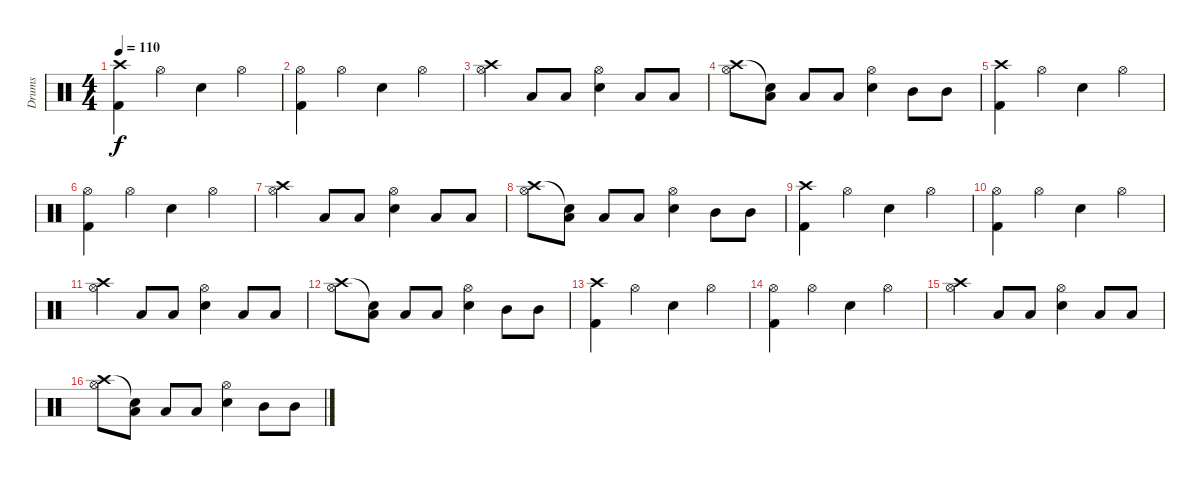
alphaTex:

\track ("Drums" "Drums") {instrument percussion}
\staff {score}
\articulation defaults
\ts (4 4)
\tempo 110
\clef neutral
\ks c
("Crash high (hit)" "Kick (hit) 2").4{dy f} "Hi-Hat (open)".4 "Snare (hit) 2".4 "Hi-Hat (open)".4 |
("Hi-Hat (open)" "Kick (hit) 2").4 "Hi-Hat (open)".4 "Snare (hit) 2".4 "Hi-Hat (open)".4 |
("Crash high (hit)" "Hi-Hat (open)").4 "Low Tom (hit)".8 "Low Tom (hit)".8 ("Hi-Hat (open)" "Snare (hit) 2").4 "Low Tom (hit)".8 "Low Tom (hit)".8 |
("Crash high (hit)" "Hi-Hat (open)").8 ("Snare (hit)"{t} "Low Tom (hit)").8 "Low Tom (hit)".8 "Low Tom (hit)".8 ("Hi-Hat (open)" "Snare (hit) 2").4 "Mid Tom (hit)".8 "Mid Tom (hit)".8 |
("Crash high (hit)" "Kick (hit) 2").4 "Hi-Hat (open)".4 "Snare (hit) 2".4 "Hi-Hat (open)".4 |
("Hi-Hat (open)" "Kick (hit) 2").4 "Hi-Hat (open)".4 "Snare (hit) 2".4 "Hi-Hat (open)".4 |
("Crash high (hit)" "Hi-Hat (open)").4 "Low Tom (hit)".8 "Low Tom (hit)".8 ("Hi-Hat (open)" "Snare (hit) 2").4 "Low Tom (hit)".8 "Low Tom (hit)".8 |
("Crash high (hit)" "Hi-Hat (open)").8 ("Snare (hit)"{t} "Low Tom (hit)").8 "Low Tom (hit)".8 "Low Tom (hit)".8 ("Hi-Hat (open)" "Snare (hit) 2").4 "Mid Tom (hit)".8 "Mid Tom (hit)".8 |
("Crash high (hit)" "Kick (hit) 2").4 "Hi-Hat (open)".4 "Snare (hit) 2".4 "Hi-Hat (open)".4 |
("Hi-Hat (open)" "Kick (hit) 2").4 "Hi-Hat (open)".4 "Snare (hit) 2".4 "Hi-Hat (open)".4 |
("Crash high (hit)" "Hi-Hat (open)").4 "Low Tom (hit)".8 "Low Tom (hit)".8 ("Hi-Hat (open)" "Snare (hit) 2").4 "Low Tom (hit)".8 "Low Tom (hit)".8 |
("Crash high (hit)" "Hi-Hat (open)").8 ("Snare (hit)"{t} "Low Tom (hit)").8 "Low Tom (hit)".8 "Low Tom (hit)".8 ("Hi-Hat (open)" "Snare (hit) 2").4 "Mid Tom (hit)".8 "Mid Tom (hit)".8 |
("Crash high (hit)" "Kick (hit) 2").4 "Hi-Hat (open)".4 "Snare (hit) 2".4 "Hi-Hat (open)".4 |
("Hi-Hat (open)" "Kick (hit) 2").4 "Hi-Hat (open)".4 "Snare (hit) 2".4 "Hi-Hat (open)".4 |
("Crash high (hit)" "Hi-Hat (open)").4 "Low Tom (hit)".8 "Low Tom (hit)".8 ("Hi-Hat (open)" "Snare (hit) 2").4 "Low Tom (hit)".8 "Low Tom (hit)".8 |
("Crash high (hit)" "Hi-Hat (open)").8 ("Snare (hit)"{t} "Low Tom (hit)").8 "Low Tom (hit)".8 "Low Tom (hit)".8 ("Hi-Hat (open)" "Snare (hit) 2").4 "Mid Tom (hit)".8 "Mid Tom (hit)".8
